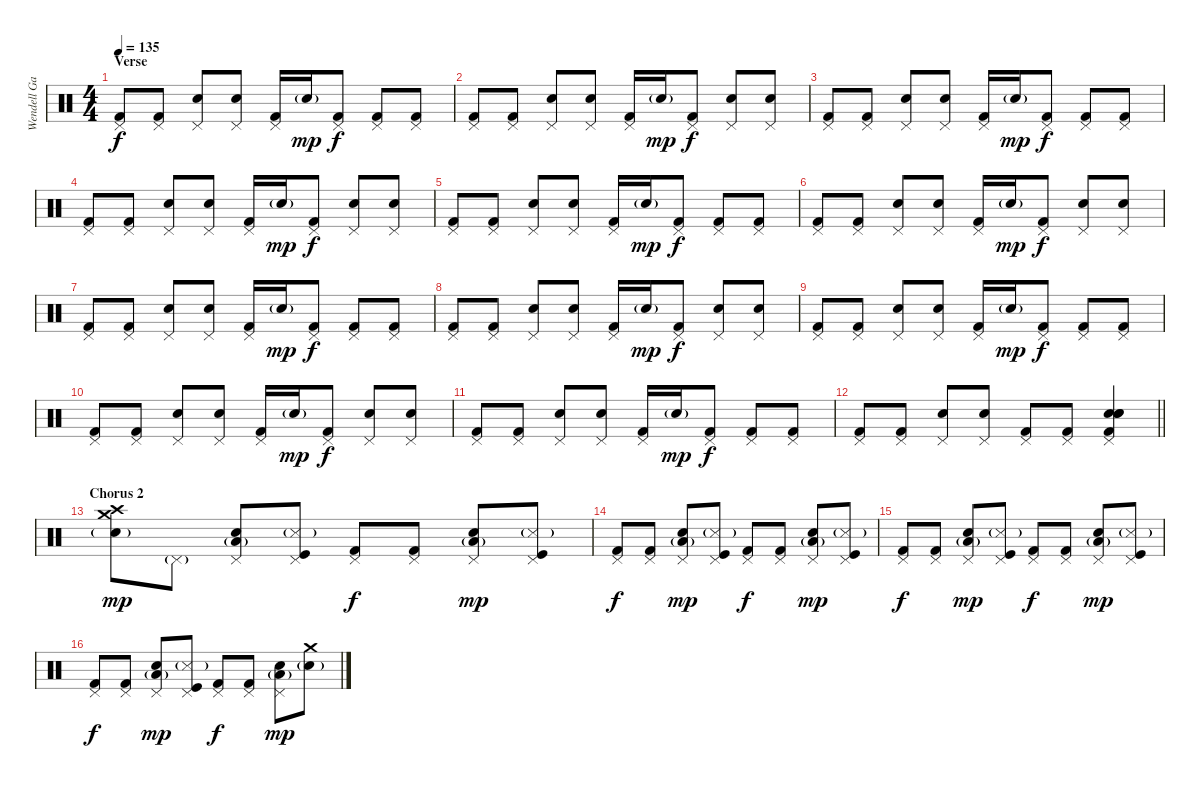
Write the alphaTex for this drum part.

\track ("Wendell Garcia" "Wendell Ga") {instrument percussion}
\staff {score}
\articulation defaults
\ts (4 4)
\section ("" "Verse")
\tempo 135
\clef neutral
\ks c
("Pedal Hi-Hat (hit)" "Kick (hit) 2").8{dy f} ("Pedal Hi-Hat (hit)" "Kick (hit) 2").8 ("Pedal Hi-Hat (hit)" "Electric Snare (hit)").8 ("Pedal Hi-Hat (hit)" "Electric Snare (hit)").8 ("Pedal Hi-Hat (hit)" "Kick (hit) 2").16 "Electric Snare (hit)"{g}.16{dy mp} ("Pedal Hi-Hat (hit)" "Kick (hit) 2").8{dy f} ("Pedal Hi-Hat (hit)" "Kick (hit) 2").8 ("Pedal Hi-Hat (hit)" "Kick (hit) 2").8 |
("Pedal Hi-Hat (hit)" "Kick (hit) 2").8 ("Pedal Hi-Hat (hit)" "Kick (hit) 2").8 ("Pedal Hi-Hat (hit)" "Electric Snare (hit)").8 ("Pedal Hi-Hat (hit)" "Electric Snare (hit)").8 ("Pedal Hi-Hat (hit)" "Kick (hit) 2").16 "Electric Snare (hit)"{g}.16{dy mp} ("Pedal Hi-Hat (hit)" "Kick (hit) 2").8{dy f} ("Pedal Hi-Hat (hit)" "Electric Snare (hit)").8 ("Pedal Hi-Hat (hit)" "Electric Snare (hit)").8 |
("Pedal Hi-Hat (hit)" "Kick (hit) 2").8 ("Pedal Hi-Hat (hit)" "Kick (hit) 2").8 ("Pedal Hi-Hat (hit)" "Electric Snare (hit)").8 ("Pedal Hi-Hat (hit)" "Electric Snare (hit)").8 ("Pedal Hi-Hat (hit)" "Kick (hit) 2").16 "Electric Snare (hit)"{g}.16{dy mp} ("Pedal Hi-Hat (hit)" "Kick (hit) 2").8{dy f} ("Pedal Hi-Hat (hit)" "Kick (hit) 2").8 ("Pedal Hi-Hat (hit)" "Kick (hit) 2").8 |
("Pedal Hi-Hat (hit)" "Kick (hit) 2").8 ("Pedal Hi-Hat (hit)" "Kick (hit) 2").8 ("Pedal Hi-Hat (hit)" "Electric Snare (hit)").8 ("Pedal Hi-Hat (hit)" "Electric Snare (hit)").8 ("Pedal Hi-Hat (hit)" "Kick (hit) 2").16 "Electric Snare (hit)"{g}.16{dy mp} ("Pedal Hi-Hat (hit)" "Kick (hit) 2").8{dy f} ("Pedal Hi-Hat (hit)" "Electric Snare (hit)").8 ("Pedal Hi-Hat (hit)" "Electric Snare (hit)").8 |
("Pedal Hi-Hat (hit)" "Kick (hit) 2").8 ("Pedal Hi-Hat (hit)" "Kick (hit) 2").8 ("Pedal Hi-Hat (hit)" "Electric Snare (hit)").8 ("Pedal Hi-Hat (hit)" "Electric Snare (hit)").8 ("Pedal Hi-Hat (hit)" "Kick (hit) 2").16 "Electric Snare (hit)"{g}.16{dy mp} ("Pedal Hi-Hat (hit)" "Kick (hit) 2").8{dy f} ("Pedal Hi-Hat (hit)" "Kick (hit) 2").8 ("Pedal Hi-Hat (hit)" "Kick (hit) 2").8 |
("Pedal Hi-Hat (hit)" "Kick (hit) 2").8 ("Pedal Hi-Hat (hit)" "Kick (hit) 2").8 ("Pedal Hi-Hat (hit)" "Electric Snare (hit)").8 ("Pedal Hi-Hat (hit)" "Electric Snare (hit)").8 ("Pedal Hi-Hat (hit)" "Kick (hit) 2").16 "Electric Snare (hit)"{g}.16{dy mp} ("Pedal Hi-Hat (hit)" "Kick (hit) 2").8{dy f} ("Pedal Hi-Hat (hit)" "Electric Snare (hit)").8 ("Pedal Hi-Hat (hit)" "Electric Snare (hit)").8 |
("Pedal Hi-Hat (hit)" "Kick (hit) 2").8 ("Pedal Hi-Hat (hit)" "Kick (hit) 2").8 ("Pedal Hi-Hat (hit)" "Electric Snare (hit)").8 ("Pedal Hi-Hat (hit)" "Electric Snare (hit)").8 ("Pedal Hi-Hat (hit)" "Kick (hit) 2").16 "Electric Snare (hit)"{g}.16{dy mp} ("Pedal Hi-Hat (hit)" "Kick (hit) 2").8{dy f} ("Pedal Hi-Hat (hit)" "Kick (hit) 2").8 ("Pedal Hi-Hat (hit)" "Kick (hit) 2").8 |
("Pedal Hi-Hat (hit)" "Kick (hit) 2").8 ("Pedal Hi-Hat (hit)" "Kick (hit) 2").8 ("Pedal Hi-Hat (hit)" "Electric Snare (hit)").8 ("Pedal Hi-Hat (hit)" "Electric Snare (hit)").8 ("Pedal Hi-Hat (hit)" "Kick (hit) 2").16 "Electric Snare (hit)"{g}.16{dy mp} ("Pedal Hi-Hat (hit)" "Kick (hit) 2").8{dy f} ("Pedal Hi-Hat (hit)" "Electric Snare (hit)").8 ("Pedal Hi-Hat (hit)" "Electric Snare (hit)").8 |
("Pedal Hi-Hat (hit)" "Kick (hit) 2").8 ("Pedal Hi-Hat (hit)" "Kick (hit) 2").8 ("Pedal Hi-Hat (hit)" "Electric Snare (hit)").8 ("Pedal Hi-Hat (hit)" "Electric Snare (hit)").8 ("Pedal Hi-Hat (hit)" "Kick (hit) 2").16 "Electric Snare (hit)"{g}.16{dy mp} ("Pedal Hi-Hat (hit)" "Kick (hit) 2").8{dy f} ("Pedal Hi-Hat (hit)" "Kick (hit) 2").8 ("Pedal Hi-Hat (hit)" "Kick (hit) 2").8 |
("Pedal Hi-Hat (hit)" "Kick (hit) 2").8 ("Pedal Hi-Hat (hit)" "Kick (hit) 2").8 ("Pedal Hi-Hat (hit)" "Electric Snare (hit)").8 ("Pedal Hi-Hat (hit)" "Electric Snare (hit)").8 ("Pedal Hi-Hat (hit)" "Kick (hit) 2").16 "Electric Snare (hit)"{g}.16{dy mp} ("Pedal Hi-Hat (hit)" "Kick (hit) 2").8{dy f} ("Pedal Hi-Hat (hit)" "Electric Snare (hit)").8 ("Pedal Hi-Hat (hit)" "Electric Snare (hit)").8 |
("Pedal Hi-Hat (hit)" "Kick (hit) 2").8 ("Pedal Hi-Hat (hit)" "Kick (hit) 2").8 ("Pedal Hi-Hat (hit)" "Electric Snare (hit)").8 ("Pedal Hi-Hat (hit)" "Electric Snare (hit)").8 ("Pedal Hi-Hat (hit)" "Kick (hit) 2").16 "Electric Snare (hit)"{g}.16{dy mp} ("Pedal Hi-Hat (hit)" "Kick (hit) 2").8{dy f} ("Pedal Hi-Hat (hit)" "Kick (hit) 2").8 ("Pedal Hi-Hat (hit)" "Kick (hit) 2").8 |
\barLineRight lightlight
("Pedal Hi-Hat (hit)" "Kick (hit) 2").8 ("Pedal Hi-Hat (hit)" "Kick (hit) 2").8 ("Pedal Hi-Hat (hit)" "Electric Snare (hit)").8 ("Pedal Hi-Hat (hit)" "Electric Snare (hit)").8 ("Pedal Hi-Hat (hit)" "Kick (hit) 2").8 ("Pedal Hi-Hat (hit)" "Kick (hit) 2").8 ("Pedal Hi-Hat (hit)" "Electric Snare (hit)" "Electric Snare (hit)" "Electric Snare (hit)" "Kick (hit) 2").4 |
\section ("" "Chorus 2")
("Crash medium (hit)" "Crash high (hit)" "Electric Snare (hit)"{g}).8{dy mp} "Pedal Hi-Hat (hit)"{g}.8 ("Pedal Hi-Hat (hit)" "Electric Snare (hit)" "Low Tom (hit)"{g}).8 ("Pedal Hi-Hat (hit)" "Kick (hit)" "Snare (side stick) 3"{g}).8 ("Pedal Hi-Hat (hit)" "Kick (hit) 2").8{dy f} ("Pedal Hi-Hat (hit)" "Kick (hit) 2").8 ("Pedal Hi-Hat (hit)" "Electric Snare (hit)" "Low Tom (hit)"{g}).8{dy mp} ("Pedal Hi-Hat (hit)" "Kick (hit)" "Snare (side stick) 3"{g}).8 |
("Pedal Hi-Hat (hit)" "Kick (hit) 2").8{dy f} ("Pedal Hi-Hat (hit)" "Kick (hit) 2").8 ("Pedal Hi-Hat (hit)" "Electric Snare (hit)" "Low Tom (hit)"{g}).8{dy mp} ("Pedal Hi-Hat (hit)" "Kick (hit)" "Snare (side stick) 3"{g}).8 ("Pedal Hi-Hat (hit)" "Kick (hit) 2").8{dy f} ("Pedal Hi-Hat (hit)" "Kick (hit) 2").8 ("Pedal Hi-Hat (hit)" "Electric Snare (hit)" "Low Tom (hit)"{g}).8{dy mp} ("Pedal Hi-Hat (hit)" "Kick (hit)" "Snare (side stick) 3"{g}).8 |
("Pedal Hi-Hat (hit)" "Kick (hit) 2").8{dy f} ("Pedal Hi-Hat (hit)" "Kick (hit) 2").8 ("Pedal Hi-Hat (hit)" "Electric Snare (hit)" "Low Tom (hit)"{g}).8{dy mp} ("Pedal Hi-Hat (hit)" "Kick (hit)" "Snare (side stick) 3"{g}).8 ("Pedal Hi-Hat (hit)" "Kick (hit) 2").8{dy f} ("Pedal Hi-Hat (hit)" "Kick (hit) 2").8 ("Pedal Hi-Hat (hit)" "Electric Snare (hit)" "Low Tom (hit)"{g}).8{dy mp} ("Pedal Hi-Hat (hit)" "Kick (hit)" "Snare (side stick) 3"{g}).8 |
("Pedal Hi-Hat (hit)" "Kick (hit) 2").8{dy f} ("Pedal Hi-Hat (hit)" "Kick (hit) 2").8 ("Pedal Hi-Hat (hit)" "Electric Snare (hit)" "Low Tom (hit)"{g}).8{dy mp} ("Pedal Hi-Hat (hit)" "Kick (hit)" "Snare (side stick) 3"{g}).8 ("Pedal Hi-Hat (hit)" "Kick (hit) 2").8{dy f} ("Pedal Hi-Hat (hit)" "Kick (hit) 2").8 ("Pedal Hi-Hat (hit)" "Electric Snare (hit)" "Low Tom (hit)"{g}).8{dy mp} ("Crash medium (hit)" "Electric Snare (hit)"{g}).8
